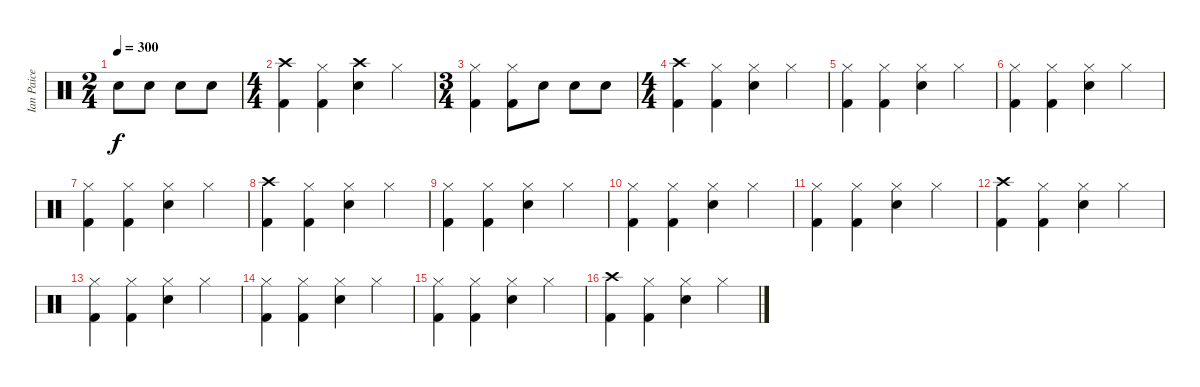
\track ("Ian Paice" "Ian Paice") {instrument percussion}
\staff {score}
\articulation defaults
\ts (2 4)
\tempo 300
\clef neutral
\ks c "Electric Snare (hit)".8{dy f} "Electric Snare (hit)".8 "Electric Snare (hit)".8 "Electric Snare (hit)".8
|
\ts (4 4)
("Crash high (hit)" "Kick (hit) 2").4 ("Hi-Hat (closed)" "Kick (hit) 2").4 ("Crash high (hit)" "Electric Snare (hit)").4 "Hi-Hat (closed)".4 |
\ts (3 4)
("Hi-Hat (closed)" "Kick (hit) 2").4 ("Hi-Hat (closed)" "Kick (hit) 2").8 "Electric Snare (hit)".8 "Electric Snare (hit)".8 "Electric Snare (hit)".8 |
\ts (4 4)
("Crash high (hit)" "Kick (hit) 2").4 ("Hi-Hat (closed)" "Kick (hit) 2").4 ("Hi-Hat (closed)" "Electric Snare (hit)").4 "Hi-Hat (closed)".4 |
("Hi-Hat (closed)" "Kick (hit) 2").4 ("Hi-Hat (closed)" "Kick (hit) 2").4 ("Hi-Hat (closed)" "Electric Snare (hit)").4 "Hi-Hat (closed)".4 |
("Hi-Hat (closed)" "Kick (hit) 2").4 ("Hi-Hat (closed)" "Kick (hit) 2").4 ("Hi-Hat (closed)" "Electric Snare (hit)").4 "Hi-Hat (closed)".4 |
("Hi-Hat (closed)" "Kick (hit) 2").4 ("Hi-Hat (closed)" "Kick (hit) 2").4 ("Hi-Hat (closed)" "Electric Snare (hit)").4 "Hi-Hat (closed)".4 |
("Crash high (hit)" "Kick (hit) 2").4 ("Hi-Hat (closed)" "Kick (hit) 2").4 ("Hi-Hat (closed)" "Electric Snare (hit)").4 "Hi-Hat (closed)".4 |
("Hi-Hat (closed)" "Kick (hit) 2").4 ("Hi-Hat (closed)" "Kick (hit) 2").4 ("Hi-Hat (closed)" "Electric Snare (hit)").4 "Hi-Hat (closed)".4 |
("Hi-Hat (closed)" "Kick (hit) 2").4 ("Hi-Hat (closed)" "Kick (hit) 2").4 ("Hi-Hat (closed)" "Electric Snare (hit)").4 "Hi-Hat (closed)".4 |
("Hi-Hat (closed)" "Kick (hit) 2").4 ("Hi-Hat (closed)" "Kick (hit) 2").4 ("Hi-Hat (closed)" "Electric Snare (hit)").4 "Hi-Hat (closed)".4 |
("Crash high (hit)" "Kick (hit) 2").4 ("Hi-Hat (closed)" "Kick (hit) 2").4 ("Hi-Hat (closed)" "Electric Snare (hit)").4 "Hi-Hat (closed)".4 |
("Hi-Hat (closed)" "Kick (hit) 2").4 ("Hi-Hat (closed)" "Kick (hit) 2").4 ("Hi-Hat (closed)" "Electric Snare (hit)").4 "Hi-Hat (closed)".4 |
("Hi-Hat (closed)" "Kick (hit) 2").4 ("Hi-Hat (closed)" "Kick (hit) 2").4 ("Hi-Hat (closed)" "Electric Snare (hit)").4 "Hi-Hat (closed)".4 |
("Hi-Hat (closed)" "Kick (hit) 2").4 ("Hi-Hat (closed)" "Kick (hit) 2").4 ("Hi-Hat (closed)" "Electric Snare (hit)").4 "Hi-Hat (closed)".4 |
("Crash high (hit)" "Kick (hit) 2").4 ("Hi-Hat (closed)" "Kick (hit) 2").4 ("Hi-Hat (closed)" "Electric Snare (hit)").4 "Hi-Hat (closed)".4
